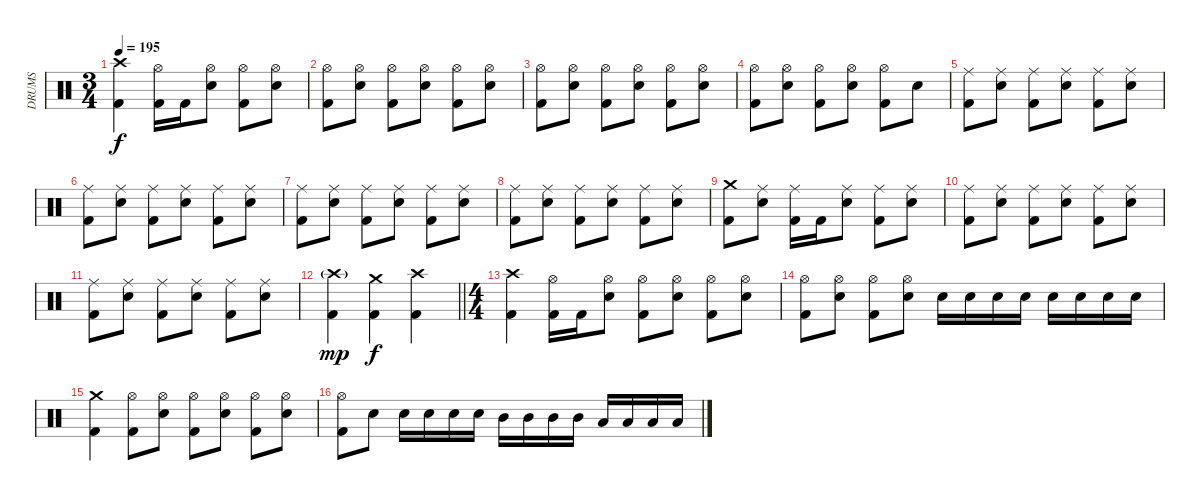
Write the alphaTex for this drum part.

\track ("DRUMS" "DRUMS") {instrument percussion}
\staff {score}
\articulation defaults
\ts (3 4)
\tempo 195
\clef neutral
\ks c
("Crash high (hit)" "Kick (hit) 2").4{dy f} ("Hi-Hat (open)" "Kick (hit) 2").16 "Kick (hit) 2".16 ("Hi-Hat (open)" "Snare (hit) 2").8 ("Hi-Hat (open)" "Kick (hit) 2").8 ("Hi-Hat (open)" "Snare (hit) 2").8 |
("Hi-Hat (open)" "Kick (hit) 2").8 ("Hi-Hat (open)" "Snare (hit) 2").8 ("Hi-Hat (open)" "Kick (hit) 2").8 ("Hi-Hat (open)" "Snare (hit) 2").8 ("Hi-Hat (open)" "Kick (hit) 2").8 ("Hi-Hat (open)" "Snare (hit) 2").8 |
("Hi-Hat (open)" "Kick (hit) 2").8 ("Hi-Hat (open)" "Snare (hit) 2").8 ("Hi-Hat (open)" "Kick (hit) 2").8 ("Hi-Hat (open)" "Snare (hit) 2").8 ("Hi-Hat (open)" "Kick (hit) 2").8 ("Hi-Hat (open)" "Snare (hit) 2").8 |
("Hi-Hat (open)" "Kick (hit) 2").8 ("Hi-Hat (open)" "Snare (hit) 2").8 ("Hi-Hat (open)" "Kick (hit) 2").8 ("Hi-Hat (open)" "Snare (hit) 2").8 ("Hi-Hat (open)" "Kick (hit) 2").8 "Snare (hit) 2".8 |
("Ride (middle)" "Kick (hit) 2").8 ("Ride (middle)" "Snare (hit) 2").8 ("Ride (middle)" "Kick (hit) 2").8 ("Ride (middle)" "Snare (hit) 2").8 ("Ride (middle)" "Kick (hit) 2").8 ("Ride (middle)" "Snare (hit) 2").8 |
("Ride (middle)" "Kick (hit) 2").8 ("Ride (middle)" "Snare (hit) 2").8 ("Ride (middle)" "Kick (hit) 2").8 ("Ride (middle)" "Snare (hit) 2").8 ("Ride (middle)" "Kick (hit) 2").8 ("Ride (middle)" "Snare (hit) 2").8 |
("Ride (middle)" "Kick (hit) 2").8 ("Ride (middle)" "Snare (hit) 2").8 ("Ride (middle)" "Kick (hit) 2").8 ("Ride (middle)" "Snare (hit) 2").8 ("Ride (middle)" "Kick (hit) 2").8 ("Ride (middle)" "Snare (hit) 2").8 |
("Ride (middle)" "Kick (hit) 2").8 ("Ride (middle)" "Snare (hit) 2").8 ("Ride (middle)" "Kick (hit) 2").8 ("Ride (middle)" "Snare (hit) 2").8 ("Ride (middle)" "Kick (hit) 2").8 ("Ride (middle)" "Snare (hit) 2").8 |
("Crash medium (hit)" "Kick (hit) 2").8 ("Ride (middle)" "Snare (hit) 2").8 ("Ride (middle)" "Kick (hit) 2").16 "Kick (hit) 2".16 ("Ride (middle)" "Snare (hit) 2").8 ("Ride (middle)" "Kick (hit) 2").8 ("Ride (middle)" "Snare (hit) 2").8 |
("Ride (middle)" "Kick (hit) 2").8 ("Ride (middle)" "Snare (hit) 2").8 ("Ride (middle)" "Kick (hit) 2").8 ("Ride (middle)" "Snare (hit) 2").8 ("Ride (middle)" "Kick (hit) 2").8 ("Ride (middle)" "Snare (hit) 2").8 |
("Ride (middle)" "Kick (hit) 2").8 ("Ride (middle)" "Snare (hit) 2").8 ("Ride (middle)" "Kick (hit) 2").8 ("Ride (middle)" "Snare (hit) 2").8 ("Ride (middle)" "Kick (hit) 2").8 ("Ride (middle)" "Snare (hit) 2").8 |
\barLineRight lightlight
("Crash high (hit)"{g} "Kick (hit) 2").4{dy mp} ("Crash medium (hit)" "Kick (hit) 2").4{dy f} ("Crash high (hit)" "Kick (hit) 2").4 |
\ts (4 4)
("Crash high (hit)" "Kick (hit) 2").4 ("Hi-Hat (open)" "Kick (hit) 2").16 "Kick (hit) 2".16 ("Hi-Hat (open)" "Snare (hit) 2").8 ("Hi-Hat (open)" "Kick (hit) 2").8 ("Hi-Hat (open)" "Snare (hit) 2").8 ("Hi-Hat (open)" "Kick (hit) 2").8 ("Hi-Hat (open)" "Snare (hit) 2").8 |
("Hi-Hat (open)" "Kick (hit) 2").8 ("Hi-Hat (open)" "Snare (hit) 2").8 ("Hi-Hat (open)" "Kick (hit) 2").8 ("Hi-Hat (open)" "Snare (hit) 2").8 "Snare (hit) 2".16 "Snare (hit) 2".16 "Snare (hit) 2".16 "Snare (hit) 2".16 "Snare (hit) 2".16 "Snare (hit) 2".16 "Snare (hit) 2".16 "Snare (hit) 2".16 |
("Crash medium (hit)" "Kick (hit) 2").4 ("Hi-Hat (open)" "Kick (hit) 2").8 ("Hi-Hat (open)" "Snare (hit) 2").8 ("Hi-Hat (open)" "Kick (hit) 2").8 ("Hi-Hat (open)" "Snare (hit) 2").8 ("Hi-Hat (open)" "Kick (hit) 2").8 ("Hi-Hat (open)" "Snare (hit) 2").8 |
("Hi-Hat (open)" "Kick (hit) 2").8 "Snare (hit) 2".8 "Snare (hit) 2".16 "Snare (hit) 2".16 "Snare (hit) 2".16 "Snare (hit) 2".16 "Mid Tom (hit)".16 "Mid Tom (hit)".16 "Mid Tom (hit)".16 "Mid Tom (hit)".16 "Low Tom (hit)".16 "Low Tom (hit)".16 "Low Tom (hit)".16 "Low Tom (hit)".16
